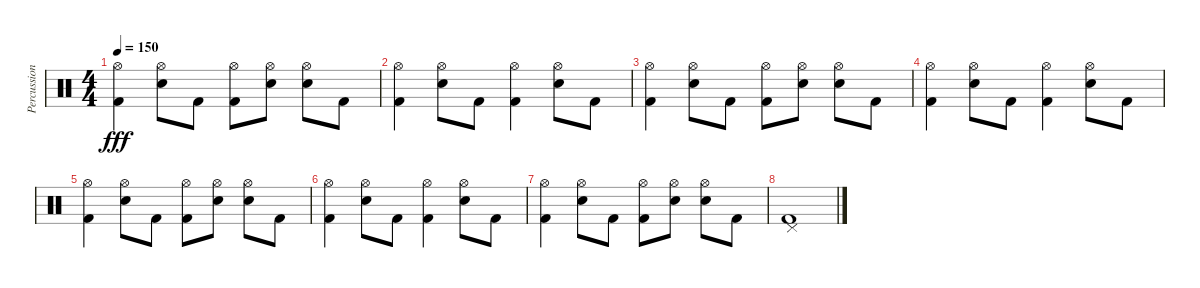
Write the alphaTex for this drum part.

\track ("Percussion" "Percussion") {instrument percussion}
\staff {score}
\articulation defaults
\ts (4 4)
\tempo 150
\clef neutral
\ks c
("Hi-Hat (open)" "Kick (hit) 2").4{dy fff} ("Hi-Hat (open)" "Electric Snare (hit)").8 "Kick (hit) 2".8 ("Hi-Hat (open)" "Kick (hit) 2").8 ("Hi-Hat (open)" "Electric Snare (hit)").8 ("Hi-Hat (open)" "Electric Snare (hit)").8 "Kick (hit) 2".8 |
("Hi-Hat (open)" "Kick (hit) 2").4 ("Hi-Hat (open)" "Electric Snare (hit)").8 "Kick (hit) 2".8 ("Hi-Hat (open)" "Kick (hit) 2").4 ("Hi-Hat (open)" "Electric Snare (hit)").8 "Kick (hit) 2".8 |
("Hi-Hat (open)" "Kick (hit) 2").4 ("Hi-Hat (open)" "Electric Snare (hit)").8 "Kick (hit) 2".8 ("Hi-Hat (open)" "Kick (hit) 2").8 ("Hi-Hat (open)" "Electric Snare (hit)").8 ("Hi-Hat (open)" "Electric Snare (hit)").8 "Kick (hit) 2".8 |
("Hi-Hat (open)" "Kick (hit) 2").4 ("Hi-Hat (open)" "Electric Snare (hit)").8 "Kick (hit) 2".8 ("Hi-Hat (open)" "Kick (hit) 2").4 ("Hi-Hat (open)" "Electric Snare (hit)").8 "Kick (hit) 2".8 |
("Hi-Hat (open)" "Kick (hit) 2").4 ("Hi-Hat (open)" "Electric Snare (hit)").8 "Kick (hit) 2".8 ("Hi-Hat (open)" "Kick (hit) 2").8 ("Hi-Hat (open)" "Electric Snare (hit)").8 ("Hi-Hat (open)" "Electric Snare (hit)").8 "Kick (hit) 2".8 |
("Hi-Hat (open)" "Kick (hit) 2").4 ("Hi-Hat (open)" "Electric Snare (hit)").8 "Kick (hit) 2".8 ("Hi-Hat (open)" "Kick (hit) 2").4 ("Hi-Hat (open)" "Electric Snare (hit)").8 "Kick (hit) 2".8 |
("Hi-Hat (open)" "Kick (hit) 2").4 ("Hi-Hat (open)" "Electric Snare (hit)").8 "Kick (hit) 2".8 ("Hi-Hat (open)" "Kick (hit) 2").8 ("Hi-Hat (open)" "Electric Snare (hit)").8 ("Hi-Hat (open)" "Electric Snare (hit)").8 "Kick (hit) 2".8 |
("Pedal Hi-Hat (hit)" "Kick (hit) 2").1
